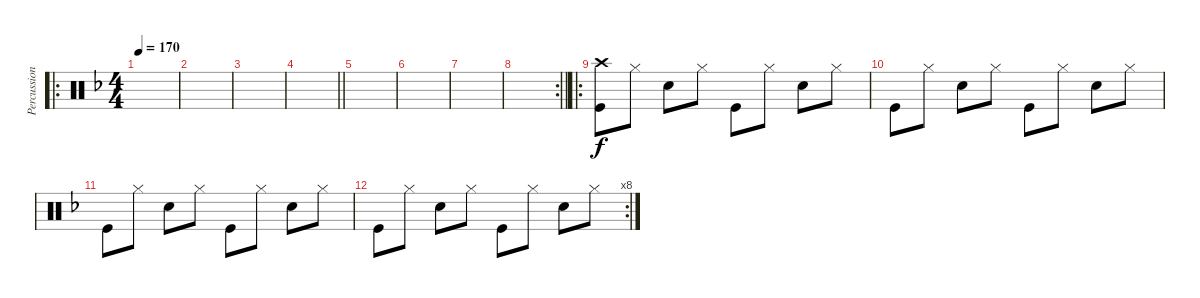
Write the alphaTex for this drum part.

\track ("Percussion" "Percussion") {instrument percussion}
\staff {score}
\articulation defaults
\ro
\ts (4 4)
\tempo 170
\clef neutral
\ks f
|
|
|
\barLineRight lightlight
|
|
|
|
\rc 2
\barLineRight lightlight
|
\ro
("Crash high (hit)" "Kick (hit)").8 "Hi-Hat (closed)".8 "Snare (hit) 2".8 "Hi-Hat (closed)".8 "Kick (hit)".8 "Hi-Hat (closed)".8 "Snare (hit) 2".8 "Hi-Hat (closed)".8 |
"Kick (hit)".8 "Hi-Hat (closed)".8 "Snare (hit) 2".8 "Hi-Hat (closed)".8 "Kick (hit)".8 "Hi-Hat (closed)".8 "Snare (hit) 2".8 "Hi-Hat (closed)".8 |
"Kick (hit)".8 "Hi-Hat (closed)".8 "Snare (hit) 2".8 "Hi-Hat (closed)".8 "Kick (hit)".8 "Hi-Hat (closed)".8 "Snare (hit) 2".8 "Hi-Hat (closed)".8 |
\rc 8 "Kick (hit)".8 "Hi-Hat (closed)".8 "Snare (hit) 2".8 "Hi-Hat (closed)".8 "Kick (hit)".8 "Hi-Hat (closed)".8 "Snare (hit) 2".8 "Hi-Hat (closed)".8
